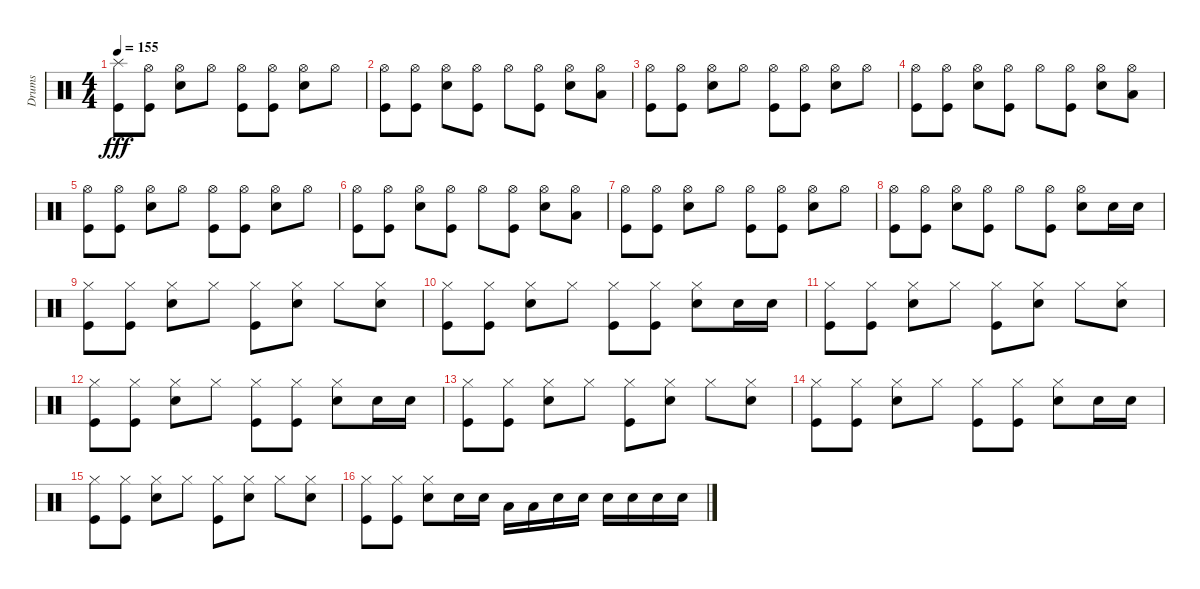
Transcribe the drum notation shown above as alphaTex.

\track ("Drums" "Drums") {instrument percussion}
\staff {score}
\articulation defaults
\ts (4 4)
\tempo 155
\clef neutral
\ks c
("Splash (hit)" "Kick (hit)").8{dy fff} ("Hi-Hat (open)" "Kick (hit)").8 ("Hi-Hat (open)" "Snare (hit) 2").8 "Hi-Hat (open)".8 ("Hi-Hat (open)" "Kick (hit)").8 ("Hi-Hat (open)" "Kick (hit)").8 ("Hi-Hat (open)" "Snare (hit) 2").8 "Hi-Hat (open)".8 |
("Hi-Hat (open)" "Kick (hit)").8 ("Hi-Hat (open)" "Kick (hit)").8 ("Hi-Hat (open)" "Snare (hit) 2").8 ("Hi-Hat (open)" "Kick (hit)").8 "Hi-Hat (open)".8 ("Hi-Hat (open)" "Kick (hit)").8 ("Hi-Hat (open)" "Snare (hit) 2").8 ("Hi-Hat (open)" "Low Tom (hit)").8 |
("Hi-Hat (open)" "Kick (hit)").8 ("Hi-Hat (open)" "Kick (hit)").8 ("Hi-Hat (open)" "Snare (hit) 2").8 "Hi-Hat (open)".8 ("Hi-Hat (open)" "Kick (hit)").8 ("Hi-Hat (open)" "Kick (hit)").8 ("Hi-Hat (open)" "Snare (hit) 2").8 "Hi-Hat (open)".8 |
("Hi-Hat (open)" "Kick (hit)").8 ("Hi-Hat (open)" "Kick (hit)").8 ("Hi-Hat (open)" "Snare (hit) 2").8 ("Hi-Hat (open)" "Kick (hit)").8 "Hi-Hat (open)".8 ("Hi-Hat (open)" "Kick (hit)").8 ("Hi-Hat (open)" "Snare (hit) 2").8 ("Hi-Hat (open)" "Low Tom (hit)").8 |
("Hi-Hat (open)" "Kick (hit)").8 ("Hi-Hat (open)" "Kick (hit)").8 ("Hi-Hat (open)" "Snare (hit) 2").8 "Hi-Hat (open)".8 ("Hi-Hat (open)" "Kick (hit)").8 ("Hi-Hat (open)" "Kick (hit)").8 ("Hi-Hat (open)" "Snare (hit) 2").8 "Hi-Hat (open)".8 |
("Hi-Hat (open)" "Kick (hit)").8 ("Hi-Hat (open)" "Kick (hit)").8 ("Hi-Hat (open)" "Snare (hit) 2").8 ("Hi-Hat (open)" "Kick (hit)").8 "Hi-Hat (open)".8 ("Hi-Hat (open)" "Kick (hit)").8 ("Hi-Hat (open)" "Snare (hit) 2").8 ("Hi-Hat (open)" "Low Tom (hit)").8 |
("Hi-Hat (open)" "Kick (hit)").8 ("Hi-Hat (open)" "Kick (hit)").8 ("Hi-Hat (open)" "Snare (hit) 2").8 "Hi-Hat (open)".8 ("Hi-Hat (open)" "Kick (hit)").8 ("Hi-Hat (open)" "Kick (hit)").8 ("Hi-Hat (open)" "Snare (hit) 2").8 "Hi-Hat (open)".8 |
("Hi-Hat (open)" "Kick (hit)").8 ("Hi-Hat (open)" "Kick (hit)").8 ("Hi-Hat (open)" "Snare (hit) 2").8 ("Hi-Hat (open)" "Kick (hit)").8 "Hi-Hat (open)".8 ("Hi-Hat (open)" "Kick (hit)").8 ("Hi-Hat (open)" "Snare (hit) 2").8 "Snare (hit) 2".16 "Snare (hit) 2".16 |
("Hi-Hat (closed)" "Kick (hit)").8 ("Hi-Hat (closed)" "Kick (hit)").8 ("Hi-Hat (closed)" "Snare (hit) 2").8 "Hi-Hat (closed)".8 ("Hi-Hat (closed)" "Kick (hit)").8 ("Hi-Hat (closed)" "Snare (hit) 2").8 "Hi-Hat (closed)".8 ("Hi-Hat (closed)" "Snare (hit) 2").8 |
("Hi-Hat (closed)" "Kick (hit)").8 ("Hi-Hat (closed)" "Kick (hit)").8 ("Hi-Hat (closed)" "Snare (hit) 2").8 "Hi-Hat (closed)".8 ("Hi-Hat (closed)" "Kick (hit)").8 ("Hi-Hat (closed)" "Kick (hit)").8 ("Hi-Hat (closed)" "Snare (hit) 2").8 "Snare (hit) 2".16 "Snare (hit) 2".16 |
("Hi-Hat (closed)" "Kick (hit)").8 ("Hi-Hat (closed)" "Kick (hit)").8 ("Hi-Hat (closed)" "Snare (hit) 2").8 "Hi-Hat (closed)".8 ("Hi-Hat (closed)" "Kick (hit)").8 ("Hi-Hat (closed)" "Snare (hit) 2").8 "Hi-Hat (closed)".8 ("Hi-Hat (closed)" "Snare (hit) 2").8 |
("Hi-Hat (closed)" "Kick (hit)").8 ("Hi-Hat (closed)" "Kick (hit)").8 ("Hi-Hat (closed)" "Snare (hit) 2").8 "Hi-Hat (closed)".8 ("Hi-Hat (closed)" "Kick (hit)").8 ("Hi-Hat (closed)" "Kick (hit)").8 ("Hi-Hat (closed)" "Snare (hit) 2").8 "Snare (hit) 2".16 "Snare (hit) 2".16 |
("Hi-Hat (closed)" "Kick (hit)").8 ("Hi-Hat (closed)" "Kick (hit)").8 ("Hi-Hat (closed)" "Snare (hit) 2").8 "Hi-Hat (closed)".8 ("Hi-Hat (closed)" "Kick (hit)").8 ("Hi-Hat (closed)" "Snare (hit) 2").8 "Hi-Hat (closed)".8 ("Hi-Hat (closed)" "Snare (hit) 2").8 |
("Hi-Hat (closed)" "Kick (hit)").8 ("Hi-Hat (closed)" "Kick (hit)").8 ("Hi-Hat (closed)" "Snare (hit) 2").8 "Hi-Hat (closed)".8 ("Hi-Hat (closed)" "Kick (hit)").8 ("Hi-Hat (closed)" "Kick (hit)").8 ("Hi-Hat (closed)" "Snare (hit) 2").8 "Snare (hit) 2".16 "Snare (hit) 2".16 |
("Hi-Hat (closed)" "Kick (hit)").8 ("Hi-Hat (closed)" "Kick (hit)").8 ("Hi-Hat (closed)" "Snare (hit) 2").8 "Hi-Hat (closed)".8 ("Hi-Hat (closed)" "Kick (hit)").8 ("Hi-Hat (closed)" "Snare (hit) 2").8 "Hi-Hat (closed)".8 ("Hi-Hat (closed)" "Snare (hit) 2").8 |
("Hi-Hat (closed)" "Kick (hit)").8 ("Hi-Hat (closed)" "Kick (hit)").8 ("Hi-Hat (closed)" "Snare (hit) 2").8 "Snare (hit) 2".16 "Snare (hit) 2".16 "Low Tom (hit)".16 "Low Tom (hit)".16 "Snare (hit) 2".16 "Snare (hit) 2".16 "Snare (hit) 2".16 "Snare (hit) 2".16 "Snare (hit) 2".16 "Snare (hit) 2".16
